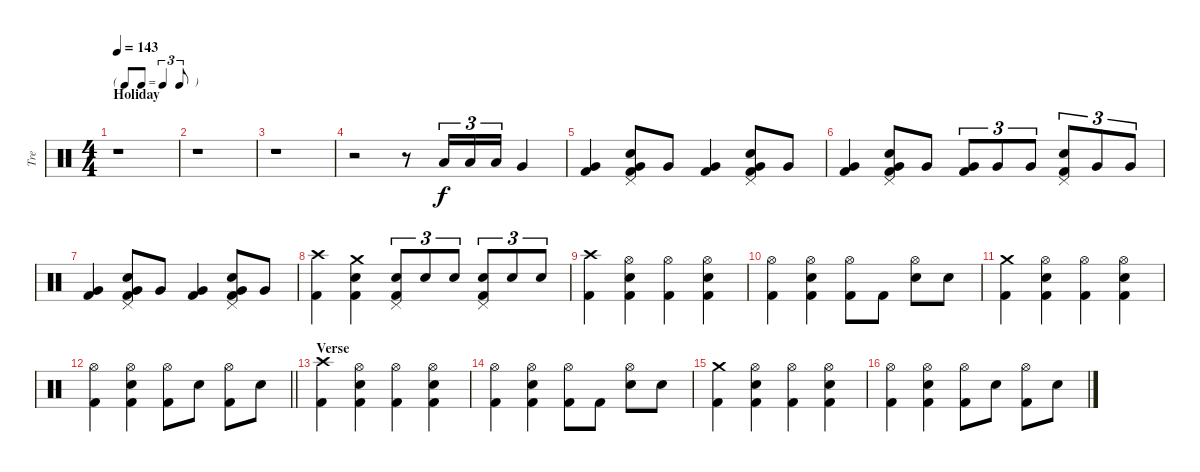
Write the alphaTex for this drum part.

\track ("Tre" "Tre") {instrument percussion}
\staff {score}
\articulation defaults
\ts (4 4)
\tf triplet8th
\section ("" "Holiday")
\tempo 143
\clef neutral
\ks c
r.1{dy f} |
r.1 |
r.1 |
r.2 r.8 "Low Tom (hit)".16{tu (3 2)} "Low Tom (hit)".16{tu (3 2)} "Low Tom (hit)".16{tu (3 2)} "Very Low Tom (hit)".4 |
("Very Low Tom (hit)" "Kick (hit) 2").4 ("Pedal Hi-Hat (hit)" "Snare (hit) 2" "Very Low Tom (hit)" "Kick (hit) 2").8 "Very Low Tom (hit)".8 ("Very Low Tom (hit)" "Kick (hit) 2").4 ("Pedal Hi-Hat (hit)" "Snare (hit) 2" "Very Low Tom (hit)" "Kick (hit) 2").8 "Very Low Tom (hit)".8 |
("Very Low Tom (hit)" "Kick (hit) 2").4 ("Pedal Hi-Hat (hit)" "Snare (hit) 2" "Very Low Tom (hit)" "Kick (hit) 2").8 "Very Low Tom (hit)".8 ("Very Low Tom (hit)" "Kick (hit) 2").8{tu (3 2)} "Very Low Tom (hit)".8{tu (3 2)} "Very Low Tom (hit)".8{tu (3 2)} ("Pedal Hi-Hat (hit)" "Snare (hit) 2" "Kick (hit) 2").8{tu (3 2)} "Very Low Tom (hit)".8{tu (3 2)} "Very Low Tom (hit)".8{tu (3 2)} |
("Very Low Tom (hit)" "Kick (hit) 2").4 ("Pedal Hi-Hat (hit)" "Snare (hit) 2" "Very Low Tom (hit)" "Kick (hit) 2").8 "Very Low Tom (hit)".8 ("Very Low Tom (hit)" "Kick (hit) 2").4 ("Pedal Hi-Hat (hit)" "Snare (hit) 2" "Very Low Tom (hit)" "Kick (hit) 2").8 "Very Low Tom (hit)".8 |
("Crash high (hit)" "Kick (hit) 2").4 ("Crash medium (hit)" "Snare (hit) 2" "Kick (hit) 2").4 ("Snare (hit) 2" "Pedal Hi-Hat (hit)" "Kick (hit) 2").8{tu (3 2)} "Snare (hit) 2".8{tu (3 2)} "Snare (hit) 2".8{tu (3 2)} ("Snare (hit) 2" "Pedal Hi-Hat (hit)" "Kick (hit) 2").8{tu (3 2)} "Snare (hit) 2".8{tu (3 2)} "Snare (hit) 2".8{tu (3 2)} |
("Crash high (hit)" "Kick (hit) 2").4 ("Hi-Hat (open)" "Snare (hit) 2" "Kick (hit) 2").4 ("Hi-Hat (open)" "Kick (hit) 2").4 ("Hi-Hat (open)" "Snare (hit) 2" "Kick (hit) 2").4 |
("Hi-Hat (open)" "Kick (hit) 2").4 ("Hi-Hat (open)" "Snare (hit) 2" "Kick (hit) 2").4 ("Hi-Hat (open)" "Kick (hit) 2").8 "Kick (hit) 2".8 ("Hi-Hat (open)" "Snare (hit) 2").8 "Snare (hit) 2".8 |
("Crash medium (hit)" "Kick (hit) 2").4 ("Hi-Hat (open)" "Snare (hit) 2" "Kick (hit) 2").4 ("Hi-Hat (open)" "Kick (hit) 2").4 ("Hi-Hat (open)" "Snare (hit) 2" "Kick (hit) 2").4 |
\barLineRight lightlight
("Hi-Hat (open)" "Kick (hit) 2").4 ("Hi-Hat (open)" "Snare (hit) 2" "Kick (hit) 2").4 ("Hi-Hat (open)" "Kick (hit) 2").8 "Snare (hit) 2".8 ("Hi-Hat (open)" "Kick (hit) 2").8 "Snare (hit) 2".8 |
\section ("" "Verse")
("Crash high (hit)" "Kick (hit) 2").4 ("Hi-Hat (open)" "Snare (hit) 2" "Kick (hit) 2").4 ("Hi-Hat (open)" "Kick (hit) 2").4 ("Hi-Hat (open)" "Snare (hit) 2" "Kick (hit) 2").4 |
("Hi-Hat (open)" "Kick (hit) 2").4 ("Hi-Hat (open)" "Snare (hit) 2" "Kick (hit) 2").4 ("Hi-Hat (open)" "Kick (hit) 2").8 "Kick (hit) 2".8 ("Hi-Hat (open)" "Snare (hit) 2").8 "Snare (hit) 2".8 |
("Crash medium (hit)" "Kick (hit) 2").4 ("Hi-Hat (open)" "Snare (hit) 2" "Kick (hit) 2").4 ("Hi-Hat (open)" "Kick (hit) 2").4 ("Hi-Hat (open)" "Snare (hit) 2" "Kick (hit) 2").4 |
("Hi-Hat (open)" "Kick (hit) 2").4 ("Hi-Hat (open)" "Snare (hit) 2" "Kick (hit) 2").4 ("Hi-Hat (open)" "Kick (hit) 2").8 "Snare (hit) 2".8 ("Hi-Hat (open)" "Kick (hit) 2").8 "Snare (hit) 2".8
